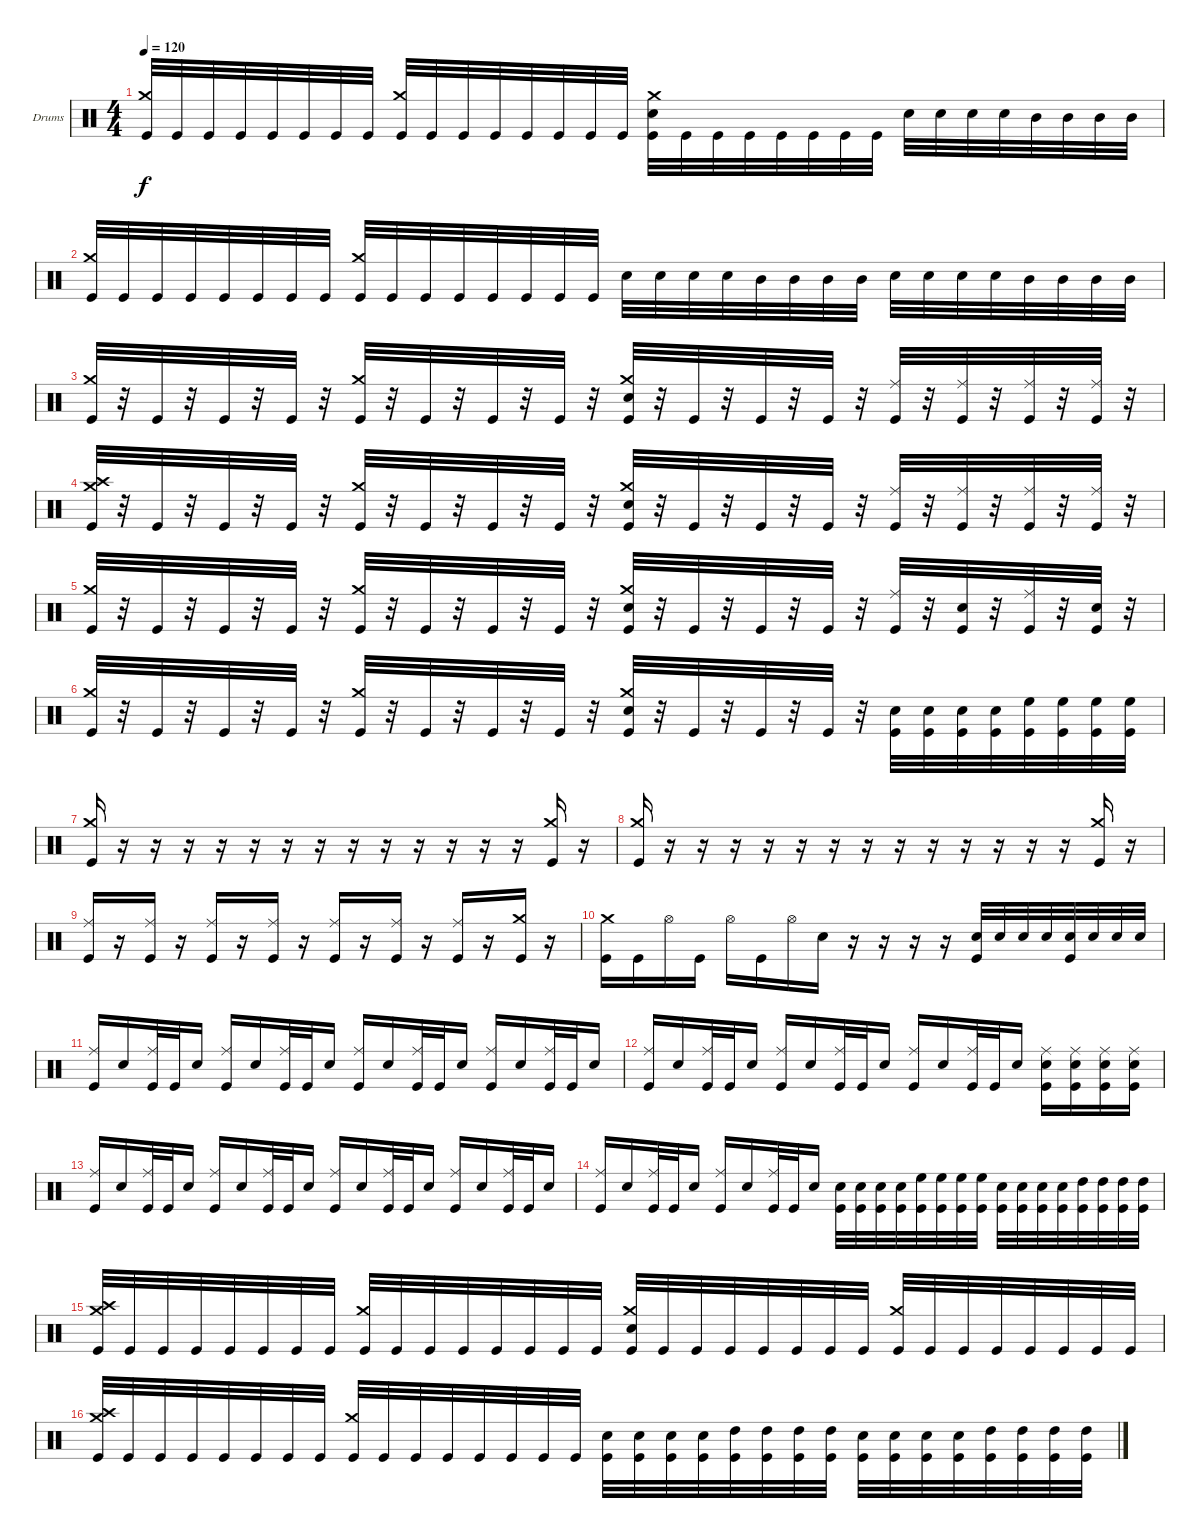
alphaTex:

\defaultSystemsLayout 4
\bracketExtendMode groupsimilarinstruments
\firstSystemTrackNameOrientation horizontal
\otherSystemsTrackNameOrientation horizontal
\track ("Drumkit" "Drums") {instrument percussion}
\staff {score}
\articulation defaults
\ts (4 4)
\tempo 120
\clef neutral
\scale
0.333333
\ks c
("Crash medium (hit)" "Kick (hit)").32{dy f beam invert} "Kick (hit)".32 "Kick (hit)".32 "Kick (hit)".32 "Kick (hit)".32 "Kick (hit)".32 "Kick (hit)".32 "Kick (hit)".32 ("Kick (hit)" "Crash medium (hit)").32{beam invert} "Kick (hit)".32 "Kick (hit)".32 "Kick (hit)".32 "Kick (hit)".32 "Kick (hit)".32 "Kick (hit)".32 "Kick (hit)".32 ("Kick (hit)" "Snare (hit) 2" "Crash medium (hit)").32 "Kick (hit)".32 "Kick (hit)".32 "Kick (hit)".32 "Kick (hit)".32 "Kick (hit)".32 "Kick (hit)".32 "Kick (hit)".32 "Snare (hit) 2".32 "Snare (hit) 2".32 "Snare (hit) 2".32 "Snare (hit) 2".32 "Mid Tom (hit)".32 "Mid Tom (hit)".32 "Mid Tom (hit)".32 "Mid Tom (hit)".32 |
\scale
0.333333 ("Crash medium (hit)" "Kick (hit)").32{beam invert} "Kick (hit)".32 "Kick (hit)".32 "Kick (hit)".32 "Kick (hit)".32 "Kick (hit)".32 "Kick (hit)".32 "Kick (hit)".32 ("Kick (hit)" "Crash medium (hit)").32{beam invert} "Kick (hit)".32 "Kick (hit)".32 "Kick (hit)".32 "Kick (hit)".32 "Kick (hit)".32 "Kick (hit)".32 "Kick (hit)".32 "Snare (hit) 2".32 "Snare (hit) 2".32 "Snare (hit) 2".32 "Snare (hit) 2".32 "Mid Tom (hit)".32 "Mid Tom (hit)".32 "Mid Tom (hit)".32 "Mid Tom (hit)".32 "Snare (hit) 2".32 "Snare (hit) 2".32 "Snare (hit) 2".32 "Snare (hit) 2".32 "Mid Tom (hit)".32 "Mid Tom (hit)".32 "Mid Tom (hit)".32 "Mid Tom (hit)".32 |
\scale
0.333333 ("Crash medium (hit)" "Kick (hit)").32{beam invert} r.32 "Kick (hit)".32 r.32 "Kick (hit)".32 r.32 "Kick (hit)".32 r.32{beam invert} ("Kick (hit)" "Crash medium (hit)").32{beam invert} r.32 "Kick (hit)".32 r.32 "Kick (hit)".32 r.32 "Kick (hit)".32 r.32 ("Kick (hit)" "Snare (hit) 2" "Crash medium (hit)").32 r.32 "Kick (hit)".32 r.32 "Kick (hit)".32 r.32 "Kick (hit)".32 r.32 ("Kick (hit)" "Ride (middle)").32{beam invert} r.32 ("Ride (middle)" "Kick (hit)").32 r.32 ("Kick (hit)" "Ride (middle)").32 r.32 ("Ride (middle)" "Kick (hit)").32 r.32 |
\scale
0.333333 ("Crash medium (hit)" "Kick (hit)" "Crash high (hit)").32 r.32 "Kick (hit)".32 r.32 "Kick (hit)".32 r.32 "Kick (hit)".32 r.32{beam invert} ("Kick (hit)" "Crash medium (hit)").32{beam invert} r.32 "Kick (hit)".32 r.32 "Kick (hit)".32 r.32 "Kick (hit)".32 r.32 ("Kick (hit)" "Snare (hit) 2" "Crash medium (hit)").32 r.32 "Kick (hit)".32 r.32 "Kick (hit)".32 r.32 "Kick (hit)".32 r.32 ("Kick (hit)" "Ride (middle)").32{beam invert} r.32 ("Ride (middle)" "Kick (hit)").32 r.32 ("Kick (hit)" "Ride (middle)").32 r.32 ("Ride (middle)" "Kick (hit)").32 r.32 |
\scale
0.333333 ("Crash medium (hit)" "Kick (hit)").32{beam invert} r.32 "Kick (hit)".32 r.32 "Kick (hit)".32 r.32 "Kick (hit)".32 r.32{beam invert} ("Kick (hit)" "Crash medium (hit)").32{beam invert} r.32 "Kick (hit)".32 r.32 "Kick (hit)".32 r.32 "Kick (hit)".32 r.32 ("Kick (hit)" "Snare (hit) 2" "Crash medium (hit)").32 r.32 "Kick (hit)".32 r.32 "Kick (hit)".32 r.32 "Kick (hit)".32 r.32 ("Kick (hit)" "Ride (middle)").32{beam invert} r.32 ("Kick (hit)" "Snare (hit) 2").32 r.32 ("Kick (hit)" "Ride (middle)").32 r.32 ("Kick (hit)" "Snare (hit) 2").32 r.32 |
\scale
0.333333 ("Crash medium (hit)" "Kick (hit)").32{beam invert} r.32 "Kick (hit)".32 r.32 "Kick (hit)".32 r.32 "Kick (hit)".32 r.32{beam invert} ("Kick (hit)" "Crash medium (hit)").32{beam invert} r.32 "Kick (hit)".32 r.32 "Kick (hit)".32 r.32 "Kick (hit)".32 r.32 ("Kick (hit)" "Snare (hit) 2" "Crash medium (hit)").32 r.32 "Kick (hit)".32 r.32 "Kick (hit)".32 r.32 "Kick (hit)".32 r.32 ("Snare (hit) 2" "Kick (hit)").32{beam invert} ("Snare (hit) 2" "Kick (hit)").32 ("Snare (hit) 2" "Kick (hit)").32 ("Snare (hit) 2" "Kick (hit)").32 ("High Floor Tom (hit)" "Kick (hit)").32 ("High Floor Tom (hit)" "Kick (hit)").32 ("High Floor Tom (hit)" "Kick (hit)").32 ("High Floor Tom (hit)" "Kick (hit)").32 |
\scale
0.333333 ("Crash medium (hit)" "Kick (hit)").16{beam invert} r.16 r.16 r.16 r.16 r.16 r.16 r.16 r.16 r.16 r.16 r.16 r.16 r.16 ("Kick (hit)" "Crash medium (hit)").16{beam invert} r.16 |
\scale
0.333333 ("Crash medium (hit)" "Kick (hit)").16{beam invert} r.16 r.16 r.16 r.16 r.16 r.16 r.16 r.16 r.16 r.16 r.16 r.16 r.16 ("Kick (hit)" "Crash medium (hit)").16{beam invert} r.16 |
("Ride (middle)" "Kick (hit)").16{beam invert} r.16 ("Ride (middle)" "Kick (hit)").16 r.16{beam invert} ("Ride (middle)" "Kick (hit)").16{beam invert} r.16 ("Ride (middle)" "Kick (hit)").16 r.16{beam invert} ("Ride (middle)" "Kick (hit)").16{beam invert} r.16 ("Ride (middle)" "Kick (hit)").16 r.16{beam invert} ("Ride (middle)" "Kick (hit)").16{beam invert} r.16 ("Crash medium (hit)" "Kick (hit)").16 r.16 |
("Crash medium (hit)" "Kick (hit)").16 "Kick (hit)".16 "Hi-Hat (open)".16 "Kick (hit)".16 "Hi-Hat (open)".16 "Kick (hit)".16 "Hi-Hat (open)".16 "Snare (hit) 2".16 r.16 r.16 r.16 r.16 ("Snare (hit) 2" "Kick (hit)").32 "Snare (hit) 2".32 "Snare (hit) 2".32 "Snare (hit) 2".32 ("Snare (hit) 2" "Kick (hit)").32 "Snare (hit) 2".32 "Snare (hit) 2".32 "Snare (hit) 2".32 |
("Ride (middle)" "Kick (hit)").16{beam invert} "Snare (hit) 2".16 ("Ride (middle)" "Kick (hit)").32 "Kick (hit)".32 "Snare (hit) 2".16 ("Ride (middle)" "Kick (hit)").16{beam invert} "Snare (hit) 2".16 ("Ride (middle)" "Kick (hit)").32 "Kick (hit)".32 "Snare (hit) 2".16 ("Ride (middle)" "Kick (hit)").16{beam invert} "Snare (hit) 2".16 ("Ride (middle)" "Kick (hit)").32 "Kick (hit)".32 "Snare (hit) 2".16 ("Ride (middle)" "Kick (hit)").16{beam invert} "Snare (hit) 2".16 ("Ride (middle)" "Kick (hit)").32 "Kick (hit)".32 "Snare (hit) 2".16 |
("Ride (middle)" "Kick (hit)").16{beam invert} "Snare (hit) 2".16 ("Ride (middle)" "Kick (hit)").32 "Kick (hit)".32 "Snare (hit) 2".16 ("Ride (middle)" "Kick (hit)").16{beam invert} "Snare (hit) 2".16 ("Ride (middle)" "Kick (hit)").32 "Kick (hit)".32 "Snare (hit) 2".16 ("Ride (middle)" "Kick (hit)").16{beam invert} "Snare (hit) 2".16 ("Ride (middle)" "Kick (hit)").32 "Kick (hit)".32 "Snare (hit) 2".16 ("Ride (middle)" "Snare (hit) 2" "Kick (hit)").16 ("Ride (middle)" "Snare (hit) 2" "Kick (hit)").16 ("Ride (middle)" "Snare (hit) 2" "Kick (hit)").16 ("Ride (middle)" "Snare (hit) 2" "Kick (hit)").16 |
("Ride (middle)" "Kick (hit)").16{beam invert} "Snare (hit) 2".16 ("Ride (middle)" "Kick (hit)").32 "Kick (hit)".32 "Snare (hit) 2".16 ("Ride (middle)" "Kick (hit)").16{beam invert} "Snare (hit) 2".16 ("Ride (middle)" "Kick (hit)").32 "Kick (hit)".32 "Snare (hit) 2".16 ("Ride (middle)" "Kick (hit)").16{beam invert} "Snare (hit) 2".16 ("Ride (middle)" "Kick (hit)").32 "Kick (hit)".32 "Snare (hit) 2".16 ("Ride (middle)" "Kick (hit)").16{beam invert} "Snare (hit) 2".16 ("Ride (middle)" "Kick (hit)").32 "Kick (hit)".32 "Snare (hit) 2".16 |
("Ride (middle)" "Kick (hit)").16{beam invert} "Snare (hit) 2".16 ("Ride (middle)" "Kick (hit)").32 "Kick (hit)".32 "Snare (hit) 2".16 ("Ride (middle)" "Kick (hit)").16{beam invert} "Snare (hit) 2".16 ("Ride (middle)" "Kick (hit)").32 "Kick (hit)".32 "Snare (hit) 2".16 ("Snare (hit) 2" "Kick (hit)").32{beam invert} ("Snare (hit) 2" "Kick (hit)").32 ("Snare (hit) 2" "Kick (hit)").32 ("Snare (hit) 2" "Kick (hit)").32 ("High Floor Tom (hit)" "Kick (hit)").32 ("High Floor Tom (hit)" "Kick (hit)").32 ("High Floor Tom (hit)" "Kick (hit)").32 ("High Floor Tom (hit)" "Kick (hit)").32 ("Snare (hit) 2" "Kick (hit)").32{beam invert} ("Snare (hit) 2" "Kick (hit)").32 ("Snare (hit) 2" "Kick (hit)").32 ("Snare (hit) 2" "Kick (hit)").32 ("High Tom (hit)" "Kick (hit)").32 ("High Tom (hit)" "Kick (hit)").32 ("High Tom (hit)" "Kick (hit)").32 ("High Tom (hit)" "Kick (hit)").32 |
("Crash medium (hit)" "Crash high (hit)" "Kick (hit)").32 "Kick (hit)".32 "Kick (hit)".32 "Kick (hit)".32 "Kick (hit)".32 "Kick (hit)".32 "Kick (hit)".32 "Kick (hit)".32 ("Kick (hit)" "Crash medium (hit)").32{beam invert} "Kick (hit)".32 "Kick (hit)".32 "Kick (hit)".32 "Kick (hit)".32 "Kick (hit)".32 "Kick (hit)".32 "Kick (hit)".32 ("Kick (hit)" "Snare (hit) 2" "Crash medium (hit)").32 "Kick (hit)".32 "Kick (hit)".32 "Kick (hit)".32 "Kick (hit)".32 "Kick (hit)".32 "Kick (hit)".32 "Kick (hit)".32 ("Kick (hit)" "Crash medium (hit)").32{beam invert} "Kick (hit)".32 "Kick (hit)".32 "Kick (hit)".32 "Kick (hit)".32 "Kick (hit)".32 "Kick (hit)".32 "Kick (hit)".32 |
("Crash medium (hit)" "Crash high (hit)" "Kick (hit)").32 "Kick (hit)".32 "Kick (hit)".32 "Kick (hit)".32 "Kick (hit)".32 "Kick (hit)".32 "Kick (hit)".32 "Kick (hit)".32 ("Kick (hit)" "Crash medium (hit)").32{beam invert} "Kick (hit)".32 "Kick (hit)".32 "Kick (hit)".32 "Kick (hit)".32 "Kick (hit)".32 "Kick (hit)".32 "Kick (hit)".32 ("Kick (hit)" "Snare (hit) 2").32{beam invert} ("Kick (hit)" "Snare (hit) 2").32 ("Kick (hit)" "Snare (hit) 2").32 ("Kick (hit)" "Snare (hit) 2").32 ("Kick (hit)" "High Tom (hit)").32 ("Kick (hit)" "High Tom (hit)").32 ("Kick (hit)" "High Tom (hit)").32 ("Kick (hit)" "High Tom (hit)").32 ("Kick (hit)" "Snare (hit) 2").32{beam invert} ("Kick (hit)" "Snare (hit) 2").32 ("Kick (hit)" "Snare (hit) 2").32 ("Kick (hit)" "Snare (hit) 2").32 ("Kick (hit)" "High Tom (hit)").32 ("Kick (hit)" "High Tom (hit)").32 ("Kick (hit)" "High Tom (hit)").32 ("Kick (hit)" "High Tom (hit)").32
